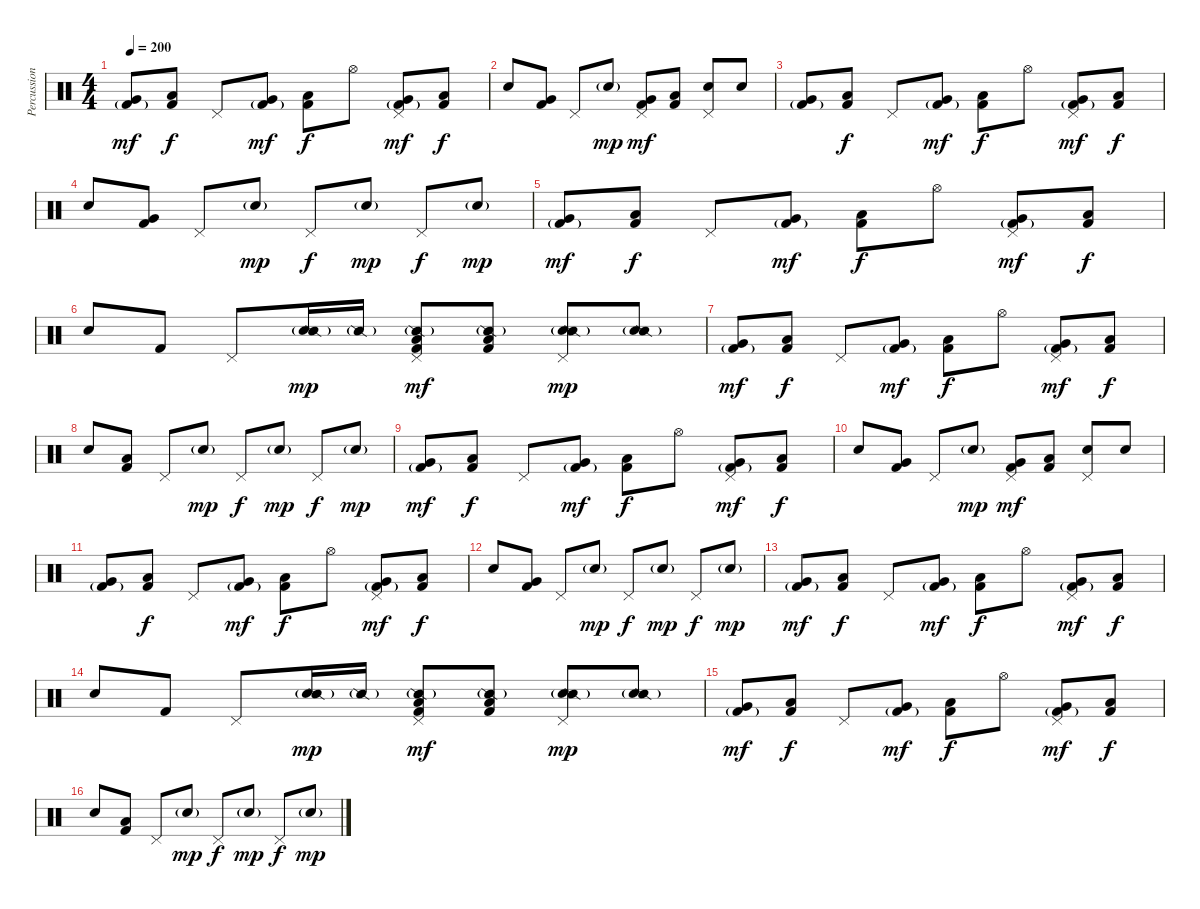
\track ("Percussion" "Percussion") {instrument percussion}
\staff {score}
\articulation defaults
\ts (4 4)
\tempo 200
\clef neutral
\ks c
("Very Low Tom (hit)" "Kick (hit) 2"{g}).8{dy mf} ("Low Floor Tom (hit)" "Kick (hit) 2").8{dy f} "Pedal Hi-Hat (hit)".8 ("Very Low Tom (hit)" "Kick (hit) 2"{g}).8{dy mf} ("Low Floor Tom (hit)" "Kick (hit) 2").8{dy f} "Hi-Hat (open)".8 ("Pedal Hi-Hat (hit)" "Very Low Tom (hit)" "Kick (hit) 2"{g}).8{dy mf} ("Low Floor Tom (hit)" "Kick (hit) 2").8{dy f} |
"Electric Snare (hit)".8 ("Very Low Tom (hit)" "Kick (hit) 2").8 "Pedal Hi-Hat (hit)".8 "Electric Snare (hit)"{g}.8{dy mp} ("Pedal Hi-Hat (hit)" "Very Low Tom (hit)" "Kick (hit) 2").8{dy mf} ("Low Floor Tom (hit)" "Kick (hit) 2").8 ("Pedal Hi-Hat (hit)" "Electric Snare (hit)").8 "Electric Snare (hit)".8 |
("Very Low Tom (hit)" "Kick (hit) 2"{g}).8 ("Low Floor Tom (hit)" "Kick (hit) 2").8{dy f} "Pedal Hi-Hat (hit)".8 ("Very Low Tom (hit)" "Kick (hit) 2"{g}).8{dy mf} ("Low Floor Tom (hit)" "Kick (hit) 2").8{dy f} "Hi-Hat (open)".8 ("Pedal Hi-Hat (hit)" "Very Low Tom (hit)" "Kick (hit) 2"{g}).8{dy mf} ("Low Floor Tom (hit)" "Kick (hit) 2").8{dy f} |
"Electric Snare (hit)".8 ("Very Low Tom (hit)" "Kick (hit) 2").8 "Pedal Hi-Hat (hit)".8 "Electric Snare (hit)"{g}.8{dy mp} "Pedal Hi-Hat (hit)".8{dy f} "Electric Snare (hit)"{g}.8{dy mp} "Pedal Hi-Hat (hit)".8{dy f} "Electric Snare (hit)"{g}.8{dy mp} |
("Very Low Tom (hit)" "Kick (hit) 2"{g}).8{dy mf} ("Low Floor Tom (hit)" "Kick (hit) 2").8{dy f} "Pedal Hi-Hat (hit)".8 ("Very Low Tom (hit)" "Kick (hit) 2"{g}).8{dy mf} ("Low Floor Tom (hit)" "Kick (hit) 2").8{dy f} "Hi-Hat (open)".8 ("Pedal Hi-Hat (hit)" "Very Low Tom (hit)" "Kick (hit) 2"{g}).8{dy mf} ("Low Floor Tom (hit)" "Kick (hit) 2").8{dy f} |
"Electric Snare (hit)".8 "Kick (hit) 2".8 "Pedal Hi-Hat (hit)".8 ("Electric Snare (hit)"{g} "Snare (side stick) 2"{g}).16{dy mp} "Snare (side stick) 2"{g}.16 ("Pedal Hi-Hat (hit)" "Snare (side stick) 2"{g} "Low Floor Tom (hit)" "Kick (hit) 2").8{dy mf} ("Snare (side stick) 2"{g} "Low Floor Tom (hit)" "Kick (hit) 2").8 ("Pedal Hi-Hat (hit)" "Electric Snare (hit)" "Snare (side stick) 2"{g}).8{dy mp} ("Electric Snare (hit)" "Snare (side stick) 2"{g}).8 |
("Very Low Tom (hit)" "Kick (hit) 2"{g}).8{dy mf} ("Low Floor Tom (hit)" "Kick (hit) 2").8{dy f} "Pedal Hi-Hat (hit)".8 ("Very Low Tom (hit)" "Kick (hit) 2"{g}).8{dy mf} ("Low Floor Tom (hit)" "Kick (hit) 2").8{dy f} "Hi-Hat (open)".8 ("Pedal Hi-Hat (hit)" "Very Low Tom (hit)" "Kick (hit) 2"{g}).8{dy mf} ("Low Floor Tom (hit)" "Kick (hit) 2").8{dy f} |
"Electric Snare (hit)".8 ("Low Floor Tom (hit)" "Kick (hit) 2").8 "Pedal Hi-Hat (hit)".8 "Electric Snare (hit)"{g}.8{dy mp} "Pedal Hi-Hat (hit)".8{dy f} "Electric Snare (hit)"{g}.8{dy mp} "Pedal Hi-Hat (hit)".8{dy f} "Electric Snare (hit)"{g}.8{dy mp} |
("Very Low Tom (hit)" "Kick (hit) 2"{g}).8{dy mf} ("Low Floor Tom (hit)" "Kick (hit) 2").8{dy f} "Pedal Hi-Hat (hit)".8 ("Very Low Tom (hit)" "Kick (hit) 2"{g}).8{dy mf} ("Low Floor Tom (hit)" "Kick (hit) 2").8{dy f} "Hi-Hat (open)".8 ("Pedal Hi-Hat (hit)" "Very Low Tom (hit)" "Kick (hit) 2"{g}).8{dy mf} ("Low Floor Tom (hit)" "Kick (hit) 2").8{dy f} |
"Electric Snare (hit)".8 ("Very Low Tom (hit)" "Kick (hit) 2").8 "Pedal Hi-Hat (hit)".8 "Electric Snare (hit)"{g}.8{dy mp} ("Pedal Hi-Hat (hit)" "Very Low Tom (hit)" "Kick (hit) 2").8{dy mf} ("Low Floor Tom (hit)" "Kick (hit) 2").8 ("Pedal Hi-Hat (hit)" "Electric Snare (hit)").8 "Electric Snare (hit)".8 |
("Very Low Tom (hit)" "Kick (hit) 2"{g}).8 ("Low Floor Tom (hit)" "Kick (hit) 2").8{dy f} "Pedal Hi-Hat (hit)".8 ("Very Low Tom (hit)" "Kick (hit) 2"{g}).8{dy mf} ("Low Floor Tom (hit)" "Kick (hit) 2").8{dy f} "Hi-Hat (open)".8 ("Pedal Hi-Hat (hit)" "Very Low Tom (hit)" "Kick (hit) 2"{g}).8{dy mf} ("Low Floor Tom (hit)" "Kick (hit) 2").8{dy f} |
"Electric Snare (hit)".8 ("Very Low Tom (hit)" "Kick (hit) 2").8 "Pedal Hi-Hat (hit)".8 "Electric Snare (hit)"{g}.8{dy mp} "Pedal Hi-Hat (hit)".8{dy f} "Electric Snare (hit)"{g}.8{dy mp} "Pedal Hi-Hat (hit)".8{dy f} "Electric Snare (hit)"{g}.8{dy mp} |
("Very Low Tom (hit)" "Kick (hit) 2"{g}).8{dy mf} ("Low Floor Tom (hit)" "Kick (hit) 2").8{dy f} "Pedal Hi-Hat (hit)".8 ("Very Low Tom (hit)" "Kick (hit) 2"{g}).8{dy mf} ("Low Floor Tom (hit)" "Kick (hit) 2").8{dy f} "Hi-Hat (open)".8 ("Pedal Hi-Hat (hit)" "Very Low Tom (hit)" "Kick (hit) 2"{g}).8{dy mf} ("Low Floor Tom (hit)" "Kick (hit) 2").8{dy f} |
"Electric Snare (hit)".8 "Kick (hit) 2".8 "Pedal Hi-Hat (hit)".8 ("Electric Snare (hit)"{g} "Snare (side stick) 2"{g}).16{dy mp} "Snare (side stick) 2"{g}.16 ("Pedal Hi-Hat (hit)" "Snare (side stick) 2"{g} "Low Floor Tom (hit)" "Kick (hit) 2").8{dy mf} ("Snare (side stick) 2"{g} "Low Floor Tom (hit)" "Kick (hit) 2").8 ("Pedal Hi-Hat (hit)" "Electric Snare (hit)" "Snare (side stick) 2"{g}).8{dy mp} ("Electric Snare (hit)" "Snare (side stick) 2"{g}).8 |
("Very Low Tom (hit)" "Kick (hit) 2"{g}).8{dy mf} ("Low Floor Tom (hit)" "Kick (hit) 2").8{dy f} "Pedal Hi-Hat (hit)".8 ("Very Low Tom (hit)" "Kick (hit) 2"{g}).8{dy mf} ("Low Floor Tom (hit)" "Kick (hit) 2").8{dy f} "Hi-Hat (open)".8 ("Pedal Hi-Hat (hit)" "Very Low Tom (hit)" "Kick (hit) 2"{g}).8{dy mf} ("Low Floor Tom (hit)" "Kick (hit) 2").8{dy f} |
"Electric Snare (hit)".8 ("Low Floor Tom (hit)" "Kick (hit) 2").8 "Pedal Hi-Hat (hit)".8 "Electric Snare (hit)"{g}.8{dy mp} "Pedal Hi-Hat (hit)".8{dy f} "Electric Snare (hit)"{g}.8{dy mp} "Pedal Hi-Hat (hit)".8{dy f} "Electric Snare (hit)"{g}.8{dy mp}
